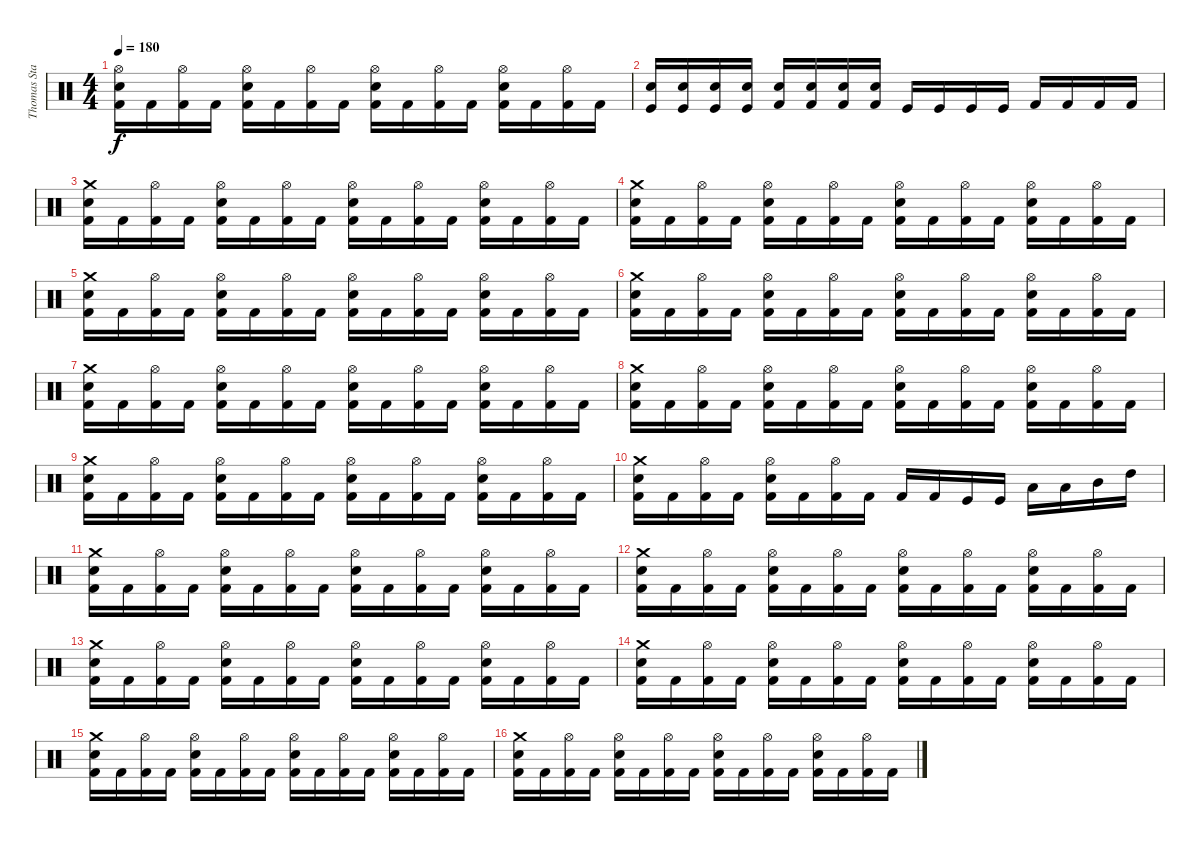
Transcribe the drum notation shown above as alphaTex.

\track ("Thomas Stauch" "Thomas Sta") {instrument percussion}
\staff {score}
\articulation defaults
\ts (4 4)
\tempo 180
\clef neutral
\ks c
("Kick (hit) 2" "Snare (hit) 2" "Hi-Hat (open)").16{dy f} "Kick (hit) 2".16 ("Kick (hit) 2" "Hi-Hat (open)").16 "Kick (hit) 2".16 ("Kick (hit) 2" "Snare (hit) 2" "Hi-Hat (open)").16 "Kick (hit) 2".16 ("Kick (hit) 2" "Hi-Hat (open)").16 "Kick (hit) 2".16 ("Kick (hit) 2" "Snare (hit) 2" "Hi-Hat (open)").16 "Kick (hit) 2".16 ("Kick (hit) 2" "Hi-Hat (open)").16 "Kick (hit) 2".16 ("Kick (hit) 2" "Snare (hit) 2" "Hi-Hat (open)").16 "Kick (hit) 2".16 ("Kick (hit) 2" "Hi-Hat (open)").16 "Kick (hit) 2".16 |
("Kick (hit)" "Snare (hit) 2").16 ("Kick (hit)" "Snare (hit) 2").16 ("Kick (hit)" "Snare (hit) 2").16 ("Kick (hit)" "Snare (hit) 2").16 ("Kick (hit) 2" "Snare (hit) 2").16 ("Kick (hit) 2" "Snare (hit) 2").16 ("Kick (hit) 2" "Snare (hit) 2").16 ("Kick (hit) 2" "Snare (hit) 2").16 "Kick (hit)".16 "Kick (hit)".16 "Kick (hit)".16 "Kick (hit)".16 "Kick (hit) 2".16 "Kick (hit) 2".16 "Kick (hit) 2".16 "Kick (hit) 2".16 |
("Kick (hit) 2" "Snare (hit) 2" "Crash medium (hit)").16 "Kick (hit) 2".16 ("Kick (hit) 2" "Hi-Hat (open)").16 "Kick (hit) 2".16 ("Kick (hit) 2" "Snare (hit) 2" "Hi-Hat (open)").16 "Kick (hit) 2".16 ("Kick (hit) 2" "Hi-Hat (open)").16 "Kick (hit) 2".16 ("Kick (hit) 2" "Snare (hit) 2" "Hi-Hat (open)").16 "Kick (hit) 2".16 ("Kick (hit) 2" "Hi-Hat (open)").16 "Kick (hit) 2".16 ("Kick (hit) 2" "Snare (hit) 2" "Hi-Hat (open)").16 "Kick (hit) 2".16 ("Kick (hit) 2" "Hi-Hat (open)").16 "Kick (hit) 2".16 |
("Kick (hit) 2" "Snare (hit) 2" "Crash medium (hit)").16 "Kick (hit) 2".16 ("Kick (hit) 2" "Hi-Hat (open)").16 "Kick (hit) 2".16 ("Kick (hit) 2" "Snare (hit) 2" "Hi-Hat (open)").16 "Kick (hit) 2".16 ("Kick (hit) 2" "Hi-Hat (open)").16 "Kick (hit) 2".16 ("Kick (hit) 2" "Snare (hit) 2" "Hi-Hat (open)").16 "Kick (hit) 2".16 ("Kick (hit) 2" "Hi-Hat (open)").16 "Kick (hit) 2".16 ("Kick (hit) 2" "Snare (hit) 2" "Hi-Hat (open)").16 "Kick (hit) 2".16 ("Kick (hit) 2" "Hi-Hat (open)").16 "Kick (hit) 2".16 |
("Kick (hit) 2" "Snare (hit) 2" "Crash medium (hit)").16 "Kick (hit) 2".16 ("Kick (hit) 2" "Hi-Hat (open)").16 "Kick (hit) 2".16 ("Kick (hit) 2" "Snare (hit) 2" "Hi-Hat (open)").16 "Kick (hit) 2".16 ("Kick (hit) 2" "Hi-Hat (open)").16 "Kick (hit) 2".16 ("Kick (hit) 2" "Snare (hit) 2" "Hi-Hat (open)").16 "Kick (hit) 2".16 ("Kick (hit) 2" "Hi-Hat (open)").16 "Kick (hit) 2".16 ("Kick (hit) 2" "Snare (hit) 2" "Hi-Hat (open)").16 "Kick (hit) 2".16 ("Kick (hit) 2" "Hi-Hat (open)").16 "Kick (hit) 2".16 |
("Kick (hit) 2" "Snare (hit) 2" "Crash medium (hit)").16 "Kick (hit) 2".16 ("Kick (hit) 2" "Hi-Hat (open)").16 "Kick (hit) 2".16 ("Kick (hit) 2" "Snare (hit) 2" "Hi-Hat (open)").16 "Kick (hit) 2".16 ("Kick (hit) 2" "Hi-Hat (open)").16 "Kick (hit) 2".16 ("Kick (hit) 2" "Snare (hit) 2" "Hi-Hat (open)").16 "Kick (hit) 2".16 ("Kick (hit) 2" "Hi-Hat (open)").16 "Kick (hit) 2".16 ("Kick (hit) 2" "Snare (hit) 2" "Hi-Hat (open)").16 "Kick (hit) 2".16 ("Kick (hit) 2" "Hi-Hat (open)").16 "Kick (hit) 2".16 |
("Kick (hit) 2" "Snare (hit) 2" "Crash medium (hit)").16 "Kick (hit) 2".16 ("Kick (hit) 2" "Hi-Hat (open)").16 "Kick (hit) 2".16 ("Kick (hit) 2" "Snare (hit) 2" "Hi-Hat (open)").16 "Kick (hit) 2".16 ("Kick (hit) 2" "Hi-Hat (open)").16 "Kick (hit) 2".16 ("Kick (hit) 2" "Snare (hit) 2" "Hi-Hat (open)").16 "Kick (hit) 2".16 ("Kick (hit) 2" "Hi-Hat (open)").16 "Kick (hit) 2".16 ("Kick (hit) 2" "Snare (hit) 2" "Hi-Hat (open)").16 "Kick (hit) 2".16 ("Kick (hit) 2" "Hi-Hat (open)").16 "Kick (hit) 2".16 |
("Kick (hit) 2" "Snare (hit) 2" "Crash medium (hit)").16 "Kick (hit) 2".16 ("Kick (hit) 2" "Hi-Hat (open)").16 "Kick (hit) 2".16 ("Kick (hit) 2" "Snare (hit) 2" "Hi-Hat (open)").16 "Kick (hit) 2".16 ("Kick (hit) 2" "Hi-Hat (open)").16 "Kick (hit) 2".16 ("Kick (hit) 2" "Snare (hit) 2" "Hi-Hat (open)").16 "Kick (hit) 2".16 ("Kick (hit) 2" "Hi-Hat (open)").16 "Kick (hit) 2".16 ("Kick (hit) 2" "Snare (hit) 2" "Hi-Hat (open)").16 "Kick (hit) 2".16 ("Kick (hit) 2" "Hi-Hat (open)").16 "Kick (hit) 2".16 |
("Kick (hit) 2" "Snare (hit) 2" "Crash medium (hit)").16 "Kick (hit) 2".16 ("Kick (hit) 2" "Hi-Hat (open)").16 "Kick (hit) 2".16 ("Kick (hit) 2" "Snare (hit) 2" "Hi-Hat (open)").16 "Kick (hit) 2".16 ("Kick (hit) 2" "Hi-Hat (open)").16 "Kick (hit) 2".16 ("Kick (hit) 2" "Snare (hit) 2" "Hi-Hat (open)").16 "Kick (hit) 2".16 ("Kick (hit) 2" "Hi-Hat (open)").16 "Kick (hit) 2".16 ("Kick (hit) 2" "Snare (hit) 2" "Hi-Hat (open)").16 "Kick (hit) 2".16 ("Kick (hit) 2" "Hi-Hat (open)").16 "Kick (hit) 2".16 |
("Kick (hit) 2" "Snare (hit) 2" "Crash medium (hit)").16 "Kick (hit) 2".16 ("Kick (hit) 2" "Hi-Hat (open)").16 "Kick (hit) 2".16 ("Kick (hit) 2" "Snare (hit) 2" "Hi-Hat (open)").16 "Kick (hit) 2".16 ("Kick (hit) 2" "Hi-Hat (open)").16 "Kick (hit) 2".16 "Kick (hit) 2".16 "Kick (hit) 2".16 "Kick (hit)".16 "Kick (hit)".16 "Low Floor Tom (hit)".16 "Low Tom (hit)".16 "Mid Tom (hit)".16 "High Tom (hit)".16 |
("Kick (hit) 2" "Snare (hit) 2" "Crash medium (hit)").16 "Kick (hit) 2".16 ("Kick (hit) 2" "Hi-Hat (open)").16 "Kick (hit) 2".16 ("Kick (hit) 2" "Snare (hit) 2" "Hi-Hat (open)").16 "Kick (hit) 2".16 ("Kick (hit) 2" "Hi-Hat (open)").16 "Kick (hit) 2".16 ("Kick (hit) 2" "Snare (hit) 2" "Hi-Hat (open)").16 "Kick (hit) 2".16 ("Kick (hit) 2" "Hi-Hat (open)").16 "Kick (hit) 2".16 ("Kick (hit) 2" "Snare (hit) 2" "Hi-Hat (open)").16 "Kick (hit) 2".16 ("Kick (hit) 2" "Hi-Hat (open)").16 "Kick (hit) 2".16 |
("Kick (hit) 2" "Snare (hit) 2" "Crash medium (hit)").16 "Kick (hit) 2".16 ("Kick (hit) 2" "Hi-Hat (open)").16 "Kick (hit) 2".16 ("Kick (hit) 2" "Snare (hit) 2" "Hi-Hat (open)").16 "Kick (hit) 2".16 ("Kick (hit) 2" "Hi-Hat (open)").16 "Kick (hit) 2".16 ("Kick (hit) 2" "Snare (hit) 2" "Hi-Hat (open)").16 "Kick (hit) 2".16 ("Kick (hit) 2" "Hi-Hat (open)").16 "Kick (hit) 2".16 ("Kick (hit) 2" "Snare (hit) 2" "Hi-Hat (open)").16 "Kick (hit) 2".16 ("Kick (hit) 2" "Hi-Hat (open)").16 "Kick (hit) 2".16 |
("Kick (hit) 2" "Snare (hit) 2" "Crash medium (hit)").16 "Kick (hit) 2".16 ("Kick (hit) 2" "Hi-Hat (open)").16 "Kick (hit) 2".16 ("Kick (hit) 2" "Snare (hit) 2" "Hi-Hat (open)").16 "Kick (hit) 2".16 ("Kick (hit) 2" "Hi-Hat (open)").16 "Kick (hit) 2".16 ("Kick (hit) 2" "Snare (hit) 2" "Hi-Hat (open)").16 "Kick (hit) 2".16 ("Kick (hit) 2" "Hi-Hat (open)").16 "Kick (hit) 2".16 ("Kick (hit) 2" "Snare (hit) 2" "Hi-Hat (open)").16 "Kick (hit) 2".16 ("Kick (hit) 2" "Hi-Hat (open)").16 "Kick (hit) 2".16 |
("Kick (hit) 2" "Snare (hit) 2" "Crash medium (hit)").16 "Kick (hit) 2".16 ("Kick (hit) 2" "Hi-Hat (open)").16 "Kick (hit) 2".16 ("Kick (hit) 2" "Snare (hit) 2" "Hi-Hat (open)").16 "Kick (hit) 2".16 ("Kick (hit) 2" "Hi-Hat (open)").16 "Kick (hit) 2".16 ("Kick (hit) 2" "Snare (hit) 2" "Hi-Hat (open)").16 "Kick (hit) 2".16 ("Kick (hit) 2" "Hi-Hat (open)").16 "Kick (hit) 2".16 ("Kick (hit) 2" "Snare (hit) 2" "Hi-Hat (open)").16 "Kick (hit) 2".16 ("Kick (hit) 2" "Hi-Hat (open)").16 "Kick (hit) 2".16 |
("Kick (hit) 2" "Snare (hit) 2" "Crash medium (hit)").16 "Kick (hit) 2".16 ("Kick (hit) 2" "Hi-Hat (open)").16 "Kick (hit) 2".16 ("Kick (hit) 2" "Snare (hit) 2" "Hi-Hat (open)").16 "Kick (hit) 2".16 ("Kick (hit) 2" "Hi-Hat (open)").16 "Kick (hit) 2".16 ("Kick (hit) 2" "Snare (hit) 2" "Hi-Hat (open)").16 "Kick (hit) 2".16 ("Kick (hit) 2" "Hi-Hat (open)").16 "Kick (hit) 2".16 ("Kick (hit) 2" "Snare (hit) 2" "Hi-Hat (open)").16 "Kick (hit) 2".16 ("Kick (hit) 2" "Hi-Hat (open)").16 "Kick (hit) 2".16 |
("Kick (hit) 2" "Snare (hit) 2" "Crash medium (hit)").16 "Kick (hit) 2".16 ("Kick (hit) 2" "Hi-Hat (open)").16 "Kick (hit) 2".16 ("Kick (hit) 2" "Snare (hit) 2" "Hi-Hat (open)").16 "Kick (hit) 2".16 ("Kick (hit) 2" "Hi-Hat (open)").16 "Kick (hit) 2".16 ("Kick (hit) 2" "Snare (hit) 2" "Hi-Hat (open)").16 "Kick (hit) 2".16 ("Kick (hit) 2" "Hi-Hat (open)").16 "Kick (hit) 2".16 ("Kick (hit) 2" "Snare (hit) 2" "Hi-Hat (open)").16 "Kick (hit) 2".16 ("Kick (hit) 2" "Hi-Hat (open)").16 "Kick (hit) 2".16
